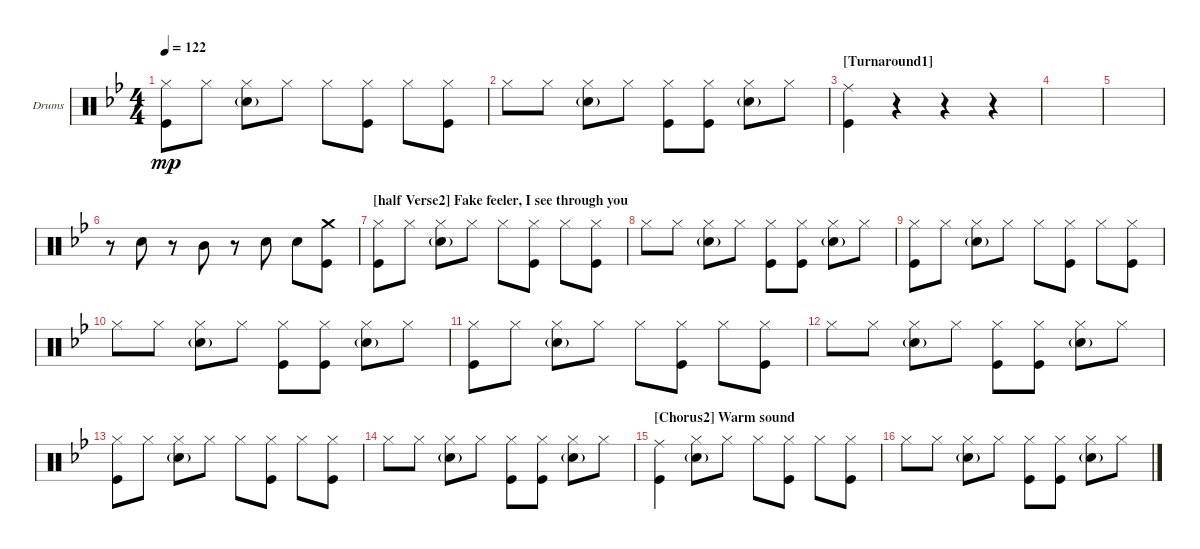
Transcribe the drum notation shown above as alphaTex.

\defaultSystemsLayout 4
\bracketExtendMode groupsimilarinstruments
\firstSystemTrackNameOrientation horizontal
\otherSystemsTrackNameOrientation horizontal
\track ("Drumkit" "Drums") {instrument percussion}
\staff {score}
\articulation defaults
\ts (4 4)
\tempo 122
\clef neutral
\ks bb
("Hi-Hat (closed)" "Kick (hit)").8{dy mp} "Hi-Hat (closed)".8 ("Hi-Hat (closed)" "Snare (hit) 2"{g}).8 "Hi-Hat (closed)".8 "Hi-Hat (closed)".8 ("Hi-Hat (closed)" "Kick (hit)").8 "Hi-Hat (closed)".8 ("Hi-Hat (closed)" "Kick (hit)").8 |
"Hi-Hat (closed)".8 "Hi-Hat (closed)".8 ("Hi-Hat (closed)" "Snare (hit) 2"{g}).8 "Hi-Hat (closed)".8 ("Hi-Hat (closed)" "Kick (hit)").8 ("Hi-Hat (closed)" "Kick (hit)").8 ("Hi-Hat (closed)" "Snare (hit) 2"{g}).8 "Hi-Hat (closed)".8 |
\section ("" "[Turnaround1]")
("Kick (hit)" "Ride (middle)").4 r.4 r.4 r.4 |
|
|
r.8 "Snare (hit) 2".8 r.8 "Mid Tom (hit)".8 r.8 "Snare (hit) 2".8 "Snare (hit) 2".8 ("Kick (hit)" "Crash medium (hit)").8 |
\section ("" "[half Verse2] Fake feeler, I see through you")
("Hi-Hat (closed)" "Kick (hit)").8 "Hi-Hat (closed)".8 ("Hi-Hat (closed)" "Snare (hit) 2"{g}).8 "Hi-Hat (closed)".8 "Hi-Hat (closed)".8 ("Hi-Hat (closed)" "Kick (hit)").8 "Hi-Hat (closed)".8 ("Hi-Hat (closed)" "Kick (hit)").8 |
"Hi-Hat (closed)".8 "Hi-Hat (closed)".8 ("Hi-Hat (closed)" "Snare (hit) 2"{g}).8 "Hi-Hat (closed)".8 ("Hi-Hat (closed)" "Kick (hit)").8 ("Hi-Hat (closed)" "Kick (hit)").8 ("Hi-Hat (closed)" "Snare (hit) 2"{g}).8 "Hi-Hat (closed)".8 |
("Hi-Hat (closed)" "Kick (hit)").8 "Hi-Hat (closed)".8 ("Hi-Hat (closed)" "Snare (hit) 2"{g}).8 "Hi-Hat (closed)".8 "Hi-Hat (closed)".8 ("Hi-Hat (closed)" "Kick (hit)").8 "Hi-Hat (closed)".8 ("Hi-Hat (closed)" "Kick (hit)").8 |
"Hi-Hat (closed)".8 "Hi-Hat (closed)".8 ("Hi-Hat (closed)" "Snare (hit) 2"{g}).8 "Hi-Hat (closed)".8 ("Hi-Hat (closed)" "Kick (hit)").8 ("Hi-Hat (closed)" "Kick (hit)").8 ("Hi-Hat (closed)" "Snare (hit) 2"{g}).8 "Hi-Hat (closed)".8 |
("Hi-Hat (closed)" "Kick (hit)").8 "Hi-Hat (closed)".8 ("Hi-Hat (closed)" "Snare (hit) 2"{g}).8 "Hi-Hat (closed)".8 "Hi-Hat (closed)".8 ("Hi-Hat (closed)" "Kick (hit)").8 "Hi-Hat (closed)".8 ("Hi-Hat (closed)" "Kick (hit)").8 |
"Hi-Hat (closed)".8 "Hi-Hat (closed)".8 ("Hi-Hat (closed)" "Snare (hit) 2"{g}).8 "Hi-Hat (closed)".8 ("Hi-Hat (closed)" "Kick (hit)").8 ("Hi-Hat (closed)" "Kick (hit)").8 ("Hi-Hat (closed)" "Snare (hit) 2"{g}).8 "Hi-Hat (closed)".8 |
("Hi-Hat (closed)" "Kick (hit)").8 "Hi-Hat (closed)".8 ("Hi-Hat (closed)" "Snare (hit) 2"{g}).8 "Hi-Hat (closed)".8 "Hi-Hat (closed)".8 ("Hi-Hat (closed)" "Kick (hit)").8 "Hi-Hat (closed)".8 ("Hi-Hat (closed)" "Kick (hit)").8 |
"Hi-Hat (closed)".8 "Hi-Hat (closed)".8 ("Hi-Hat (closed)" "Snare (hit) 2"{g}).8 "Hi-Hat (closed)".8 ("Hi-Hat (closed)" "Kick (hit)").8 ("Hi-Hat (closed)" "Kick (hit)").8 ("Hi-Hat (closed)" "Snare (hit) 2"{g}).8 "Hi-Hat (closed)".8 |
\section ("" "[Chorus2] Warm sound")
("Kick (hit)" "Ride (middle)").4 ("Hi-Hat (closed)" "Snare (hit) 2"{g}).8 "Hi-Hat (closed)".8 "Hi-Hat (closed)".8 ("Hi-Hat (closed)" "Kick (hit)").8 "Hi-Hat (closed)".8 ("Hi-Hat (closed)" "Kick (hit)").8 |
"Hi-Hat (closed)".8 "Hi-Hat (closed)".8 ("Hi-Hat (closed)" "Snare (hit) 2"{g}).8 "Hi-Hat (closed)".8 ("Hi-Hat (closed)" "Kick (hit)").8 ("Hi-Hat (closed)" "Kick (hit)").8 ("Hi-Hat (closed)" "Snare (hit) 2"{g}).8 "Hi-Hat (closed)".8
